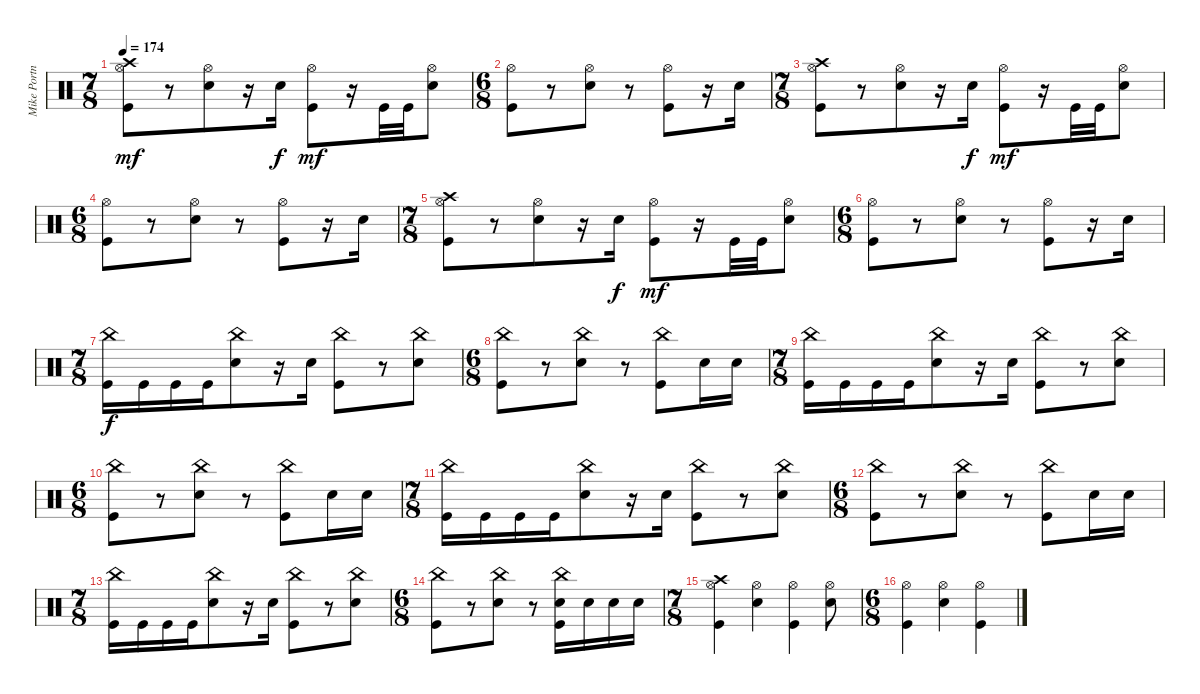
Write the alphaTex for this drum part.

\track ("Mike Portnoy" "Mike Portn") {instrument percussion}
\staff {score}
\articulation defaults
\ts (7 8)
\tempo 174
\clef neutral
\ks c
("Crash high (hit)" "Hi-Hat (open)" "Kick (hit)").8{dy mf} r.8 ("Snare (hit) 2" "Hi-Hat (open)").8 r.16 "Snare (hit) 2".16{dy f} ("Hi-Hat (open)" "Kick (hit)").8{dy mf} r.16 "Kick (hit)".32 "Kick (hit)".32 ("Snare (hit) 2" "Hi-Hat (open)").8 |
\ts (6 8)
("Hi-Hat (open)" "Kick (hit)").8 r.8 ("Snare (hit) 2" "Hi-Hat (open)").8 r.8 ("Hi-Hat (open)" "Kick (hit)").8 r.16 "Snare (hit) 2".16 |
\ts (7 8)
("Crash high (hit)" "Hi-Hat (open)" "Kick (hit)").8 r.8 ("Snare (hit) 2" "Hi-Hat (open)").8 r.16 "Snare (hit) 2".16{dy f} ("Hi-Hat (open)" "Kick (hit)").8{dy mf} r.16 "Kick (hit)".32 "Kick (hit)".32 ("Snare (hit) 2" "Hi-Hat (open)").8 |
\ts (6 8)
("Hi-Hat (open)" "Kick (hit)").8 r.8 ("Snare (hit) 2" "Hi-Hat (open)").8 r.8 ("Hi-Hat (open)" "Kick (hit)").8 r.16 "Snare (hit) 2".16 |
\ts (7 8)
("Crash high (hit)" "Hi-Hat (open)" "Kick (hit)").8 r.8 ("Snare (hit) 2" "Hi-Hat (open)").8 r.16 "Snare (hit) 2".16{dy f} ("Hi-Hat (open)" "Kick (hit)").8{dy mf} r.16 "Kick (hit)".32 "Kick (hit)".32 ("Snare (hit) 2" "Hi-Hat (open)").8 |
\ts (6 8)
("Hi-Hat (open)" "Kick (hit)").8 r.8 ("Snare (hit) 2" "Hi-Hat (open)").8 r.8 ("Hi-Hat (open)" "Kick (hit)").8 r.16 "Snare (hit) 2".16 |
\ts (7 8)
("China (hit)" "Kick (hit)").16{dy f} "Kick (hit)".16 "Kick (hit)".16 "Kick (hit)".16 ("Snare (hit) 2" "China (hit)").8 r.16 "Snare (hit) 2".16 ("China (hit)" "Kick (hit)").8 r.8 ("Snare (hit) 2" "China (hit)").8 |
\ts (6 8)
("China (hit)" "Kick (hit)").8 r.8 ("Snare (hit) 2" "China (hit)").8 r.8 ("China (hit)" "Kick (hit)").8 "Snare (hit) 2".16 "Snare (hit) 2".16 |
\ts (7 8)
("China (hit)" "Kick (hit)").16 "Kick (hit)".16 "Kick (hit)".16 "Kick (hit)".16 ("Snare (hit) 2" "China (hit)").8 r.16 "Snare (hit) 2".16 ("China (hit)" "Kick (hit)").8 r.8 ("Snare (hit) 2" "China (hit)").8 |
\ts (6 8)
("China (hit)" "Kick (hit)").8 r.8 ("Snare (hit) 2" "China (hit)").8 r.8 ("China (hit)" "Kick (hit)").8 "Snare (hit) 2".16 "Snare (hit) 2".16 |
\ts (7 8)
("China (hit)" "Kick (hit)").16 "Kick (hit)".16 "Kick (hit)".16 "Kick (hit)".16 ("Snare (hit) 2" "China (hit)").8 r.16 "Snare (hit) 2".16 ("China (hit)" "Kick (hit)").8 r.8 ("Snare (hit) 2" "China (hit)").8 |
\ts (6 8)
("China (hit)" "Kick (hit)").8 r.8 ("Snare (hit) 2" "China (hit)").8 r.8 ("China (hit)" "Kick (hit)").8 "Snare (hit) 2".16 "Snare (hit) 2".16 |
\ts (7 8)
("China (hit)" "Kick (hit)").16 "Kick (hit)".16 "Kick (hit)".16 "Kick (hit)".16 ("Snare (hit) 2" "China (hit)").8 r.16 "Snare (hit) 2".16 ("China (hit)" "Kick (hit)").8 r.8 ("Snare (hit) 2" "China (hit)").8 |
\ts (6 8)
("China (hit)" "Kick (hit)").8 r.8 ("Snare (hit) 2" "China (hit)").8 r.8 ("Snare (hit) 2" "China (hit)" "Kick (hit)").16 "Snare (hit) 2".16 "Snare (hit) 2".16 "Snare (hit) 2".16 |
\ts (7 8)
("Hi-Hat (open)" "Crash high (hit)" "Kick (hit)").4 ("Snare (hit) 2" "Hi-Hat (open)").4 ("Hi-Hat (open)" "Kick (hit)").4 ("Snare (hit) 2" "Hi-Hat (open)").8 |
\ts (6 8)
("Hi-Hat (open)" "Kick (hit)").4 ("Snare (hit) 2" "Hi-Hat (open)").4 ("Hi-Hat (open)" "Kick (hit)").4
